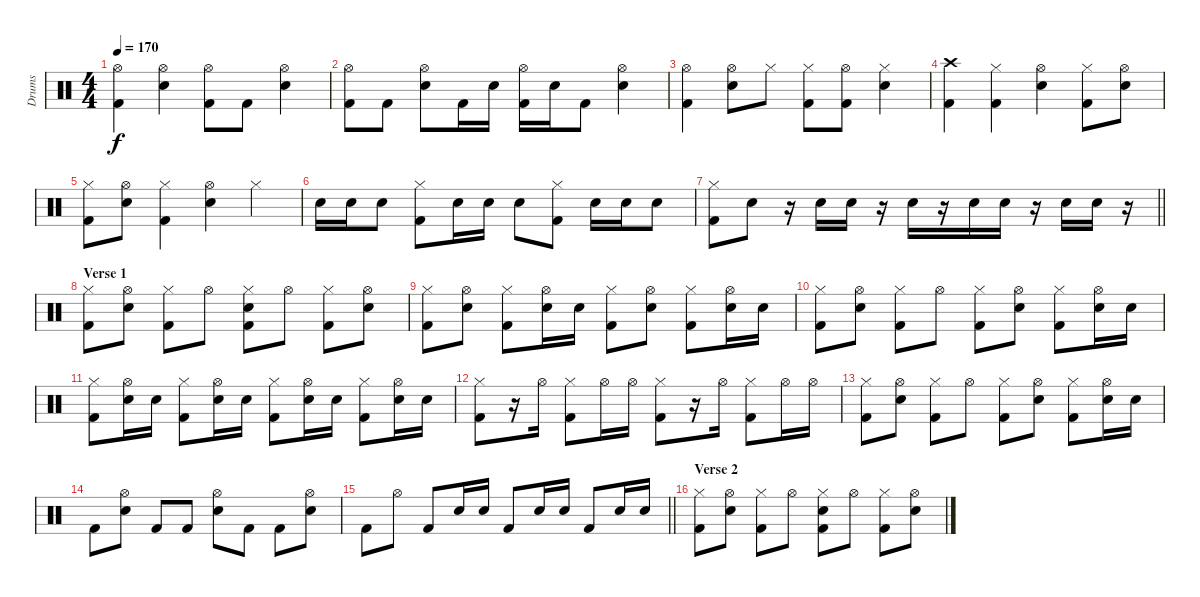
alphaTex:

\track ("Drums" "Drums") {instrument percussion}
\staff {score}
\articulation defaults
\ts (4 4)
\tempo 170
\clef neutral
\ks c
("Kick (hit) 2" "Hi-Hat (open)").4{dy f} ("Electric Snare (hit)" "Hi-Hat (open)").4 ("Kick (hit) 2" "Hi-Hat (open)").8 "Kick (hit) 2".8 ("Electric Snare (hit)" "Hi-Hat (open)").4 |
("Kick (hit) 2" "Hi-Hat (open)").8 "Kick (hit) 2".8 ("Electric Snare (hit)" "Hi-Hat (open)").8 "Kick (hit) 2".16 "Electric Snare (hit)".16 ("Kick (hit) 2" "Hi-Hat (open)").16 "Electric Snare (hit)".16 "Kick (hit) 2".8 ("Electric Snare (hit)" "Hi-Hat (open)").4 |
("Kick (hit) 2" "Hi-Hat (open)").4 ("Electric Snare (hit)" "Hi-Hat (open)").8 "Hi-Hat (closed)".8 ("Kick (hit) 2" "Hi-Hat (closed)").8 ("Kick (hit) 2" "Hi-Hat (open)").8 ("Electric Snare (hit)" "Hi-Hat (closed)").4 |
("Kick (hit) 2" "Crash high (hit)").4 ("Kick (hit) 2" "Hi-Hat (closed)").4 ("Electric Snare (hit)" "Hi-Hat (open)").4 ("Kick (hit) 2" "Hi-Hat (closed)").8 ("Electric Snare (hit)" "Hi-Hat (open)").8 |
("Kick (hit) 2" "Hi-Hat (closed)").8 ("Electric Snare (hit)" "Hi-Hat (open)").8 ("Kick (hit) 2" "Hi-Hat (closed)").4 ("Electric Snare (hit)" "Hi-Hat (open)").4 "Hi-Hat (closed)".4 |
"Electric Snare (hit)".16 "Electric Snare (hit)".16 "Electric Snare (hit)".8 ("Kick (hit) 2" "Hi-Hat (closed)").8 "Electric Snare (hit)".16 "Electric Snare (hit)".16 "Electric Snare (hit)".8 ("Kick (hit) 2" "Hi-Hat (closed)").8 "Electric Snare (hit)".16 "Electric Snare (hit)".16 "Electric Snare (hit)".8 |
\barLineRight lightlight
("Kick (hit) 2" "Hi-Hat (closed)").8 "Electric Snare (hit)".8 r.16 "Electric Snare (hit)".16 "Electric Snare (hit)".16 r.16 "Electric Snare (hit)".16 r.16 "Electric Snare (hit)".16 "Electric Snare (hit)".16 r.16 "Electric Snare (hit)".16 "Electric Snare (hit)".16 r.16 |
\section ("" "Verse 1")
("Hi-Hat (closed)" "Kick (hit) 2").8 ("Electric Snare (hit)" "Hi-Hat (open)").8 ("Hi-Hat (closed)" "Kick (hit) 2").8 "Hi-Hat (open)".8 ("Electric Snare (hit)" "Hi-Hat (closed)" "Kick (hit) 2").8 "Hi-Hat (open)".8 ("Hi-Hat (closed)" "Kick (hit) 2").8 ("Electric Snare (hit)" "Hi-Hat (open)").8 |
("Hi-Hat (closed)" "Kick (hit) 2").8 ("Electric Snare (hit)" "Hi-Hat (open)").8 ("Hi-Hat (closed)" "Kick (hit) 2").8 ("Electric Snare (hit)" "Hi-Hat (open)").16 "Electric Snare (hit)".16 ("Hi-Hat (closed)" "Kick (hit) 2").8 ("Electric Snare (hit)" "Hi-Hat (open)").8 ("Hi-Hat (closed)" "Kick (hit) 2").8 ("Electric Snare (hit)" "Hi-Hat (open)").16 "Electric Snare (hit)".16 |
("Hi-Hat (closed)" "Kick (hit) 2").8 ("Electric Snare (hit)" "Hi-Hat (open)").8 ("Hi-Hat (closed)" "Kick (hit) 2").8 "Hi-Hat (open)".8 ("Hi-Hat (closed)" "Kick (hit) 2").8 ("Electric Snare (hit)" "Hi-Hat (open)").8 ("Hi-Hat (closed)" "Kick (hit) 2").8 ("Electric Snare (hit)" "Hi-Hat (open)").16 "Electric Snare (hit)".16 |
("Hi-Hat (closed)" "Kick (hit) 2").8 ("Electric Snare (hit)" "Hi-Hat (open)").16 "Electric Snare (hit)".16 ("Hi-Hat (closed)" "Kick (hit) 2").8 ("Electric Snare (hit)" "Hi-Hat (open)").16 "Electric Snare (hit)".16 ("Hi-Hat (closed)" "Kick (hit) 2").8 ("Electric Snare (hit)" "Hi-Hat (open)").16 "Electric Snare (hit)".16 ("Hi-Hat (closed)" "Kick (hit) 2").8 ("Electric Snare (hit)" "Hi-Hat (open)").16 "Electric Snare (hit)".16 |
("Hi-Hat (closed)" "Kick (hit) 2").8 r.16 "Hi-Hat (open)".16 ("Hi-Hat (closed)" "Kick (hit) 2").8 "Hi-Hat (open)".16 "Hi-Hat (open)".16 ("Hi-Hat (closed)" "Kick (hit) 2").8 r.16 "Hi-Hat (open)".16 ("Hi-Hat (closed)" "Kick (hit) 2").8 "Hi-Hat (open)".16 "Hi-Hat (open)".16 |
("Hi-Hat (closed)" "Kick (hit) 2").8 ("Electric Snare (hit)" "Hi-Hat (open)").8 ("Hi-Hat (closed)" "Kick (hit) 2").8 "Hi-Hat (open)".8 ("Hi-Hat (closed)" "Kick (hit) 2").8 ("Electric Snare (hit)" "Hi-Hat (open)").8 ("Hi-Hat (closed)" "Kick (hit) 2").8 ("Electric Snare (hit)" "Hi-Hat (open)").16 "Electric Snare (hit)".16 |
"Kick (hit) 2".8 ("Electric Snare (hit)" "Hi-Hat (open)").8 "Kick (hit) 2".8 "Kick (hit) 2".8 ("Electric Snare (hit)" "Hi-Hat (open)").8 "Kick (hit) 2".8 "Kick (hit) 2".8 ("Electric Snare (hit)" "Hi-Hat (open)").8 |
\barLineRight lightlight "Kick (hit) 2".8 "Hi-Hat (open)".8 "Kick (hit) 2".8 "Electric Snare (hit)".16 "Electric Snare (hit)".16 "Kick (hit) 2".8 "Electric Snare (hit)".16 "Electric Snare (hit)".16 "Kick (hit) 2".8 "Electric Snare (hit)".16 "Electric Snare (hit)".16
|
\section ("" "Verse 2")
("Hi-Hat (closed)" "Kick (hit) 2").8 ("Electric Snare (hit)" "Hi-Hat (open)").8 ("Hi-Hat (closed)" "Kick (hit) 2").8 "Hi-Hat (open)".8 ("Electric Snare (hit)" "Hi-Hat (closed)" "Kick (hit) 2").8 "Hi-Hat (open)".8 ("Hi-Hat (closed)" "Kick (hit) 2").8 ("Electric Snare (hit)" "Hi-Hat (open)").8
